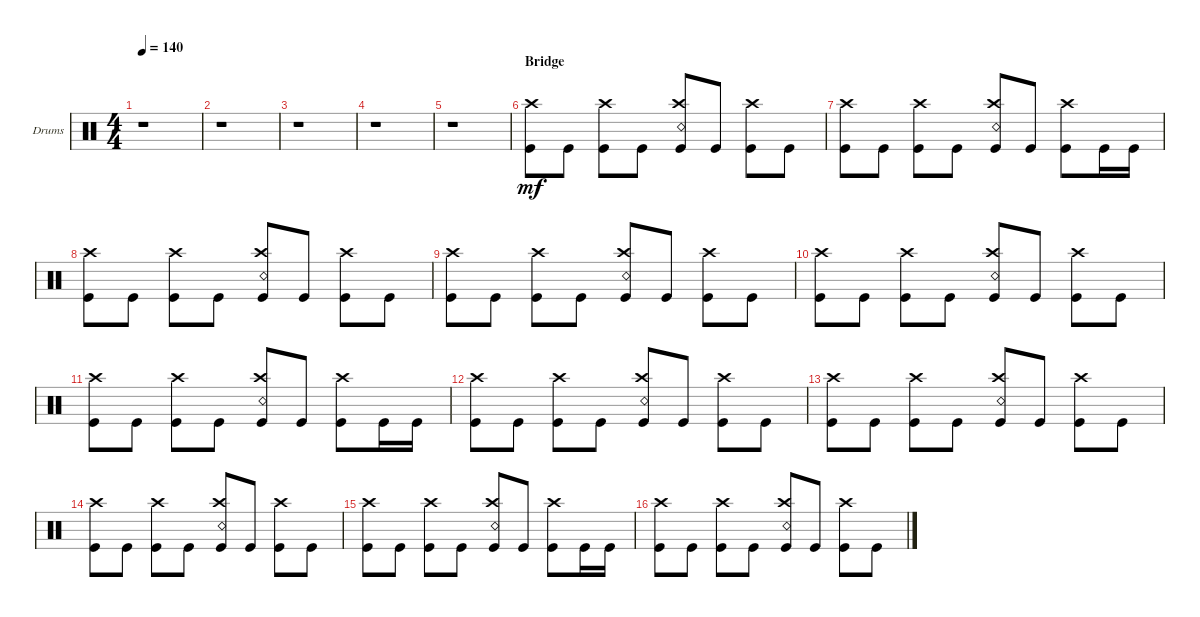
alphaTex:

\bracketExtendMode groupsimilarinstruments
\firstSystemTrackNameOrientation horizontal
\otherSystemsTrackNameOrientation horizontal
\track ("Drumkit" "Drums") {instrument percussion}
\staff {score}
\articulation defaults
\ts (4 4)
\tempo 140
\clef neutral
\ks c
r.1{dy mf} |
r.1 |
r.1 |
r.1 |
r.1 |
\section ("" "Bridge")
("Kick (hit)" "Crash high (hit)").8 "Kick (hit)".8 ("Kick (hit)" "Crash high (hit)").8 "Kick (hit)".8 ("Kick (hit)" "Snare (rim shot)" "Crash high (hit)").8 "Kick (hit)".8 ("Kick (hit)" "Crash high (hit)").8 "Kick (hit)".8 |
("Kick (hit)" "Crash high (hit)").8 "Kick (hit)".8 ("Kick (hit)" "Crash high (hit)").8 "Kick (hit)".8 ("Kick (hit)" "Snare (rim shot)" "Crash high (hit)").8 "Kick (hit)".8 ("Kick (hit)" "Crash high (hit)").8 "Kick (hit)".16 "Kick (hit)".16 |
("Kick (hit)" "Crash high (hit)").8 "Kick (hit)".8 ("Kick (hit)" "Crash high (hit)").8 "Kick (hit)".8 ("Kick (hit)" "Snare (rim shot)" "Crash high (hit)").8 "Kick (hit)".8 ("Kick (hit)" "Crash high (hit)").8 "Kick (hit)".8 |
("Kick (hit)" "Crash high (hit)").8 "Kick (hit)".8 ("Kick (hit)" "Crash high (hit)").8 "Kick (hit)".8 ("Kick (hit)" "Snare (rim shot)" "Crash high (hit)").8 "Kick (hit)".8 ("Kick (hit)" "Crash high (hit)").8 "Kick (hit)".8 |
("Kick (hit)" "Crash high (hit)").8 "Kick (hit)".8 ("Kick (hit)" "Crash high (hit)").8 "Kick (hit)".8 ("Kick (hit)" "Snare (rim shot)" "Crash high (hit)").8 "Kick (hit)".8 ("Kick (hit)" "Crash high (hit)").8 "Kick (hit)".8 |
("Kick (hit)" "Crash high (hit)").8 "Kick (hit)".8 ("Kick (hit)" "Crash high (hit)").8 "Kick (hit)".8 ("Kick (hit)" "Snare (rim shot)" "Crash high (hit)").8 "Kick (hit)".8 ("Kick (hit)" "Crash high (hit)").8 "Kick (hit)".16 "Kick (hit)".16 |
("Kick (hit)" "Crash high (hit)").8 "Kick (hit)".8 ("Kick (hit)" "Crash high (hit)").8 "Kick (hit)".8 ("Kick (hit)" "Snare (rim shot)" "Crash high (hit)").8 "Kick (hit)".8 ("Kick (hit)" "Crash high (hit)").8 "Kick (hit)".8 |
("Kick (hit)" "Crash high (hit)").8 "Kick (hit)".8 ("Kick (hit)" "Crash high (hit)").8 "Kick (hit)".8 ("Kick (hit)" "Snare (rim shot)" "Crash high (hit)").8 "Kick (hit)".8 ("Kick (hit)" "Crash high (hit)").8 "Kick (hit)".8 |
("Kick (hit)" "Crash high (hit)").8 "Kick (hit)".8 ("Kick (hit)" "Crash high (hit)").8 "Kick (hit)".8 ("Kick (hit)" "Snare (rim shot)" "Crash high (hit)").8 "Kick (hit)".8 ("Kick (hit)" "Crash high (hit)").8 "Kick (hit)".8 |
("Kick (hit)" "Crash high (hit)").8 "Kick (hit)".8 ("Kick (hit)" "Crash high (hit)").8 "Kick (hit)".8 ("Kick (hit)" "Snare (rim shot)" "Crash high (hit)").8 "Kick (hit)".8 ("Kick (hit)" "Crash high (hit)").8 "Kick (hit)".16 "Kick (hit)".16 |
("Kick (hit)" "Crash high (hit)").8 "Kick (hit)".8 ("Kick (hit)" "Crash high (hit)").8 "Kick (hit)".8 ("Kick (hit)" "Snare (rim shot)" "Crash high (hit)").8 "Kick (hit)".8 ("Kick (hit)" "Crash high (hit)").8 "Kick (hit)".8
